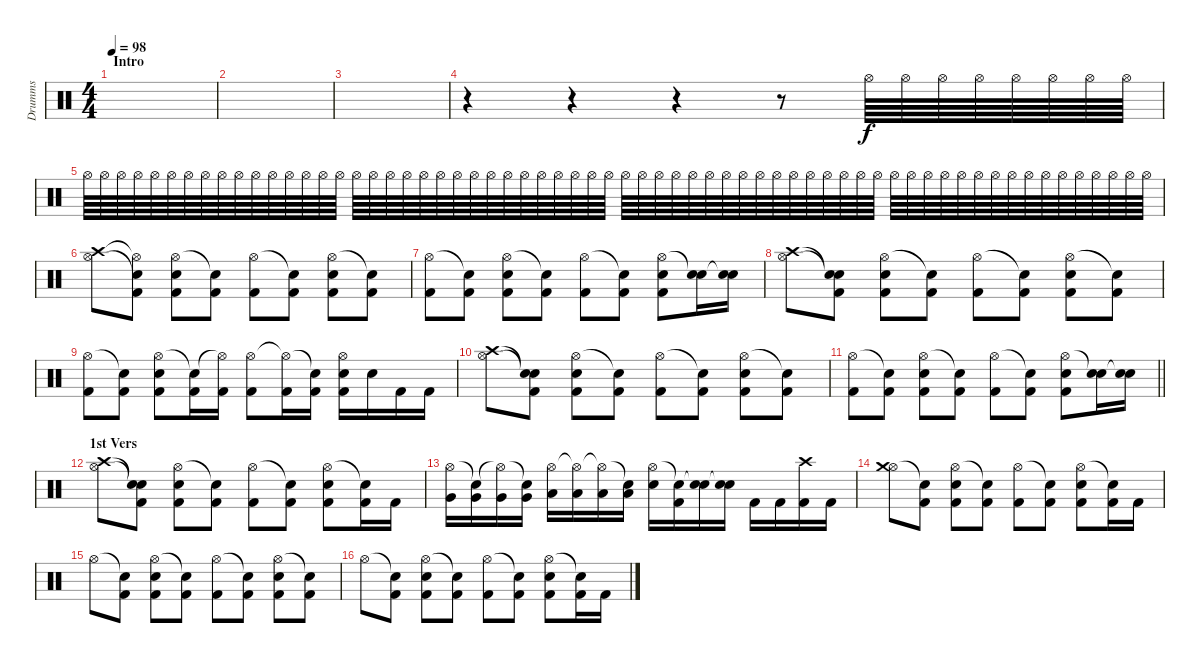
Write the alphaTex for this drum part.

\track ("Drumms" "Drumms") {instrument percussion}
\staff {score}
\articulation defaults
\ts (4 4)
\section ("" "Intro")
\tempo 98
\clef neutral
\ks c
|
|
|
r.4{volume 5} r.4 r.4 r.8 "Hi-Hat (open)".64 "Hi-Hat (open)".64 "Hi-Hat (open)".64 "Hi-Hat (open)".64 "Hi-Hat (open)".64 "Hi-Hat (open)".64 "Hi-Hat (open)".64 "Hi-Hat (open)".64 |
"Hi-Hat (open)".64{volume 6} "Hi-Hat (open)".64 "Hi-Hat (open)".64 "Hi-Hat (open)".64 "Hi-Hat (open)".64 "Hi-Hat (open)".64 "Hi-Hat (open)".64 "Hi-Hat (open)".64 "Hi-Hat (open)".64 "Hi-Hat (open)".64 "Hi-Hat (open)".64 "Hi-Hat (open)".64 "Hi-Hat (open)".64 "Hi-Hat (open)".64 "Hi-Hat (open)".64 "Hi-Hat (open)".64 "Hi-Hat (open)".64{volume 8} "Hi-Hat (open)".64 "Hi-Hat (open)".64 "Hi-Hat (open)".64 "Hi-Hat (open)".64 "Hi-Hat (open)".64 "Hi-Hat (open)".64 "Hi-Hat (open)".64 "Hi-Hat (open)".64 "Hi-Hat (open)".64 "Hi-Hat (open)".64 "Hi-Hat (open)".64 "Hi-Hat (open)".64 "Hi-Hat (open)".64 "Hi-Hat (open)".64 "Hi-Hat (open)".64 "Hi-Hat (open)".64{volume 9} "Hi-Hat (open)".64 "Hi-Hat (open)".64 "Hi-Hat (open)".64 "Hi-Hat (open)".64 "Hi-Hat (open)".64 "Hi-Hat (open)".64 "Hi-Hat (open)".64 "Hi-Hat (open)".64 "Hi-Hat (open)".64 "Hi-Hat (open)".64 "Hi-Hat (open)".64 "Hi-Hat (open)".64 "Hi-Hat (open)".64 "Hi-Hat (open)".64 "Hi-Hat (open)".64 "Hi-Hat (open)".64{volume 10} "Hi-Hat (open)".64 "Hi-Hat (open)".64 "Hi-Hat (open)".64 "Hi-Hat (open)".64 "Hi-Hat (open)".64 "Hi-Hat (open)".64 "Hi-Hat (open)".64 "Hi-Hat (open)".64 "Hi-Hat (open)".64 "Hi-Hat (open)".64 "Hi-Hat (open)".64 "Hi-Hat (open)".64 "Hi-Hat (open)".64 "Hi-Hat (open)".64 "Hi-Hat (open)".64 |
("Hi-Hat (open)" "Crash high (hit)").8{volume 13} ("Snare (hit)"{t} "Hi-Hat (open)"{t} "Kick (hit) 2").8 ("Hi-Hat (open)" "Electric Snare (hit)" "Kick (hit) 2").8 ("Snare (hit)"{t} "Kick (hit) 2").8 ("Hi-Hat (open)" "Kick (hit) 2").8 ("Snare (hit)"{t} "Kick (hit) 2").8 ("Hi-Hat (open)" "Electric Snare (hit)" "Kick (hit) 2").8 ("Snare (hit)"{t} "Kick (hit) 2").8 |
("Hi-Hat (open)" "Kick (hit) 2").8{volume 13} ("Snare (hit)"{t} "Kick (hit) 2").8 ("Hi-Hat (open)" "Electric Snare (hit)" "Kick (hit) 2").8 ("Snare (hit)"{t} "Kick (hit) 2").8 ("Hi-Hat (open)" "Kick (hit) 2").8 ("Snare (hit)"{t} "Kick (hit) 2").8 ("Hi-Hat (open)" "Electric Snare (hit)" "Kick (hit) 2").8 ("Snare (hit)"{t} "Electric Snare (hit)").16 ("Snare (hit)"{t} "Electric Snare (hit)").16 |
("Hi-Hat (open)" "Crash high (hit)").8 ("Snare (hit)"{t} "Snare (hit)"{t} "Kick (hit) 2").8 ("Hi-Hat (open)" "Electric Snare (hit)" "Kick (hit) 2").8 ("Snare (hit)"{t} "Kick (hit) 2").8 ("Hi-Hat (open)" "Kick (hit) 2").8 ("Snare (hit)"{t} "Kick (hit) 2").8 ("Hi-Hat (open)" "Electric Snare (hit)" "Kick (hit) 2").8 ("Snare (hit)"{t} "Kick (hit) 2").8 |
("Hi-Hat (open)" "Kick (hit) 2").8{volume 13} ("Snare (hit)"{t} "Kick (hit) 2").8 ("Hi-Hat (open)" "Electric Snare (hit)" "Kick (hit) 2").8 ("Snare (hit)"{t} "Kick (hit) 2").16 ("Hi-Hat (open)"{t} "Kick (hit) 2").16 ("Hi-Hat (open)" "Kick (hit) 2").8 ("Hi-Hat (open)"{t} "Kick (hit) 2").16 ("Snare (hit)"{t} "Kick (hit) 2").16 ("Hi-Hat (open)" "Electric Snare (hit)" "Kick (hit) 2").16 "Electric Snare (hit)".16 "Kick (hit) 2".16 "Kick (hit) 2".16 |
("Hi-Hat (open)" "Crash high (hit)").8 ("Snare (hit)"{t} "Snare (hit)"{t} "Kick (hit) 2").8 ("Hi-Hat (open)" "Electric Snare (hit)" "Kick (hit) 2").8 ("Snare (hit)"{t} "Kick (hit) 2").8 ("Hi-Hat (open)" "Kick (hit) 2").8 ("Snare (hit)"{t} "Kick (hit) 2").8 ("Hi-Hat (open)" "Electric Snare (hit)" "Kick (hit) 2").8 ("Snare (hit)"{t} "Kick (hit) 2").8 |
\barLineRight lightlight
("Hi-Hat (open)" "Kick (hit) 2").8{volume 13} ("Snare (hit)"{t} "Kick (hit) 2").8 ("Hi-Hat (open)" "Electric Snare (hit)" "Kick (hit) 2").8 ("Snare (hit)"{t} "Kick (hit) 2").8 ("Hi-Hat (open)" "Kick (hit) 2").8 ("Snare (hit)"{t} "Kick (hit) 2").8 ("Hi-Hat (open)" "Electric Snare (hit)" "Kick (hit) 2").8 ("Snare (hit)"{t} "Electric Snare (hit)").16 ("Snare (hit)"{t} "Electric Snare (hit)").16 |
\section ("" "1st Vers")
("Hi-Hat (open)" "Crash high (hit)").8 ("Snare (hit)"{t} "Snare (hit)"{t} "Kick (hit) 2").8 ("Hi-Hat (open)" "Electric Snare (hit)" "Kick (hit) 2").8 ("Snare (hit)"{t} "Kick (hit) 2").8 ("Hi-Hat (open)" "Kick (hit) 2").8 ("Snare (hit)"{t} "Kick (hit) 2").8 ("Hi-Hat (open)" "Electric Snare (hit)" "Kick (hit) 2").8 ("Snare (hit)"{t} "Kick (hit) 2").16 "Kick (hit) 2".16 |
("Hi-Hat (open)" "Very Low Tom (hit)").16{volume 13} ("Snare (hit)"{t} "Very Low Tom (hit)").16 ("Hi-Hat (open)"{t} "Very Low Tom (hit)").16 ("Snare (hit)"{t} "Very Low Tom (hit)").16 ("Hi-Hat (open)" "Low Tom (hit)").16 ("Hi-Hat (open)"{t} "Low Tom (hit)").16 ("Hi-Hat (open)"{t} "Low Tom (hit)").16 ("Snare (hit)"{t} "Low Tom (hit)").16 ("Hi-Hat (open)" "Electric Snare (hit)").16 ("Snare (hit)"{t} "Kick (hit) 2").16 ("Snare (hit)"{t} "Snare (hit) 2").16 ("Snare (hit)"{t} "Snare (hit) 2").16 "Kick (hit) 2".16 "Kick (hit) 2".16 ("Crash high (hit)" "Kick (hit) 2").16 "Kick (hit) 2".16 |
("Hi-Hat (open)" "Crash medium (hit)").8 ("Snare (hit)"{t} "Kick (hit) 2").8 ("Hi-Hat (open)" "Electric Snare (hit)" "Kick (hit) 2").8 ("Snare (hit)"{t} "Kick (hit) 2").8 ("Hi-Hat (open)" "Kick (hit) 2").8 ("Snare (hit)"{t} "Kick (hit) 2").8 ("Hi-Hat (open)" "Electric Snare (hit)" "Kick (hit) 2").8 ("Snare (hit)"{t} "Kick (hit) 2").16 "Kick (hit) 2".16 |
"Hi-Hat (open)".8{volume 13} ("Snare (hit)"{t} "Kick (hit) 2").8 ("Hi-Hat (open)" "Electric Snare (hit)" "Kick (hit) 2").8 ("Snare (hit)"{t} "Kick (hit) 2").8 ("Hi-Hat (open)" "Kick (hit) 2").8 ("Snare (hit)"{t} "Kick (hit) 2").8 ("Hi-Hat (open)" "Electric Snare (hit)" "Kick (hit) 2").8 ("Snare (hit)"{t} "Kick (hit) 2").8 |
"Hi-Hat (open)".8 ("Snare (hit)"{t} "Kick (hit) 2").8 ("Hi-Hat (open)" "Electric Snare (hit)" "Kick (hit) 2").8 ("Snare (hit)"{t} "Kick (hit) 2").8 ("Hi-Hat (open)" "Kick (hit) 2").8 ("Snare (hit)"{t} "Kick (hit) 2").8 ("Hi-Hat (open)" "Electric Snare (hit)" "Kick (hit) 2").8 ("Snare (hit)"{t} "Kick (hit) 2").16 "Kick (hit) 2".16
